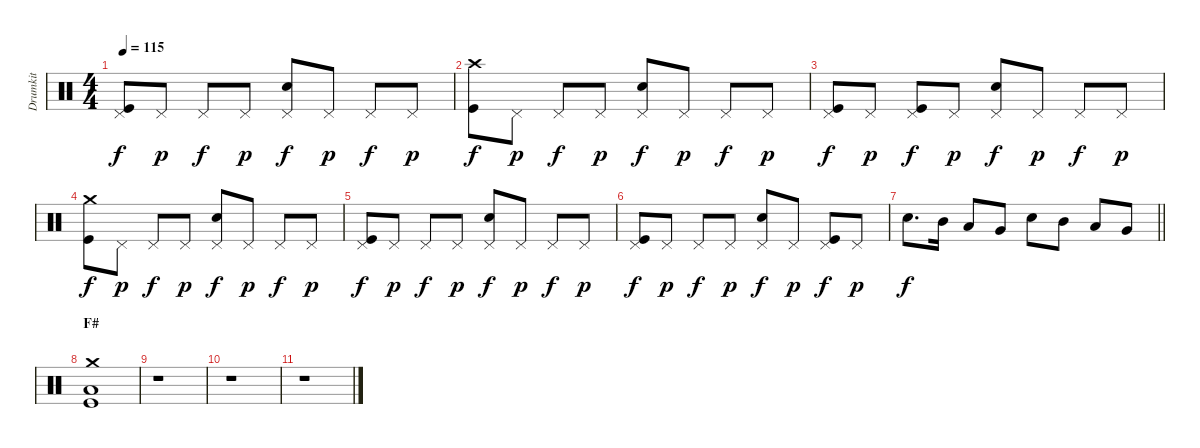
\track ("Drumkit" "Drumkit") {instrument percussion}
\staff {score}
\articulation defaults
\ts (4 4)
\tempo 115
\clef neutral
\ks c
("Kick (hit)" "Pedal Hi-Hat (hit)").8{dy f} "Pedal Hi-Hat (hit)".8{dy p} "Pedal Hi-Hat (hit)".8{dy f} "Pedal Hi-Hat (hit)".8{dy p} ("Pedal Hi-Hat (hit)" "Snare (hit) 2").8{dy f} "Pedal Hi-Hat (hit)".8{dy p} "Pedal Hi-Hat (hit)".8{dy f} "Pedal Hi-Hat (hit)".8{dy p} |
("Kick (hit)" "Crash high (hit)").8{dy f} "Pedal Hi-Hat (hit)".8{dy p} "Pedal Hi-Hat (hit)".8{dy f} "Pedal Hi-Hat (hit)".8{dy p} ("Pedal Hi-Hat (hit)" "Snare (hit) 2").8{dy f} "Pedal Hi-Hat (hit)".8{dy p} "Pedal Hi-Hat (hit)".8{dy f} "Pedal Hi-Hat (hit)".8{dy p} |
("Kick (hit)" "Pedal Hi-Hat (hit)").8{dy f} "Pedal Hi-Hat (hit)".8{dy p} ("Kick (hit)" "Pedal Hi-Hat (hit)").8{dy f} "Pedal Hi-Hat (hit)".8{dy p} ("Pedal Hi-Hat (hit)" "Snare (hit) 2").8{dy f} "Pedal Hi-Hat (hit)".8{dy p} "Pedal Hi-Hat (hit)".8{dy f} "Pedal Hi-Hat (hit)".8{dy p} |
("Kick (hit)" "Crash medium (hit)").8{dy f} "Pedal Hi-Hat (hit)".8{dy p} "Pedal Hi-Hat (hit)".8{dy f} "Pedal Hi-Hat (hit)".8{dy p} ("Pedal Hi-Hat (hit)" "Snare (hit) 2").8{dy f} "Pedal Hi-Hat (hit)".8{dy p} "Pedal Hi-Hat (hit)".8{dy f} "Pedal Hi-Hat (hit)".8{dy p} |
("Kick (hit)" "Pedal Hi-Hat (hit)").8{dy f} "Pedal Hi-Hat (hit)".8{dy p} "Pedal Hi-Hat (hit)".8{dy f} "Pedal Hi-Hat (hit)".8{dy p} ("Pedal Hi-Hat (hit)" "Snare (hit) 2").8{dy f} "Pedal Hi-Hat (hit)".8{dy p} "Pedal Hi-Hat (hit)".8{dy f} "Pedal Hi-Hat (hit)".8{dy p} |
("Kick (hit)" "Pedal Hi-Hat (hit)").8{dy f} "Pedal Hi-Hat (hit)".8{dy p} "Pedal Hi-Hat (hit)".8{dy f} "Pedal Hi-Hat (hit)".8{dy p} ("Pedal Hi-Hat (hit)" "Snare (hit) 2").8{dy f} "Pedal Hi-Hat (hit)".8{dy p} ("Kick (hit)" "Pedal Hi-Hat (hit)").8{dy f} "Pedal Hi-Hat (hit)".8{dy p} |
\barLineRight lightlight "Snare (hit) 2".8{d dy f} "Mid Tom (hit)".16 "Low Tom (hit)".8 "Very Low Tom (hit)".8 "Snare (hit) 2".8 "Mid Tom (hit)".8 "Low Tom (hit)".8 "Very Low Tom (hit)".8
|
\section ("" "F#")
("Kick (hit)" "Crash medium (hit)" "Low Floor Tom (hit)").1 |
r.1 |
r.1 |
r.1
